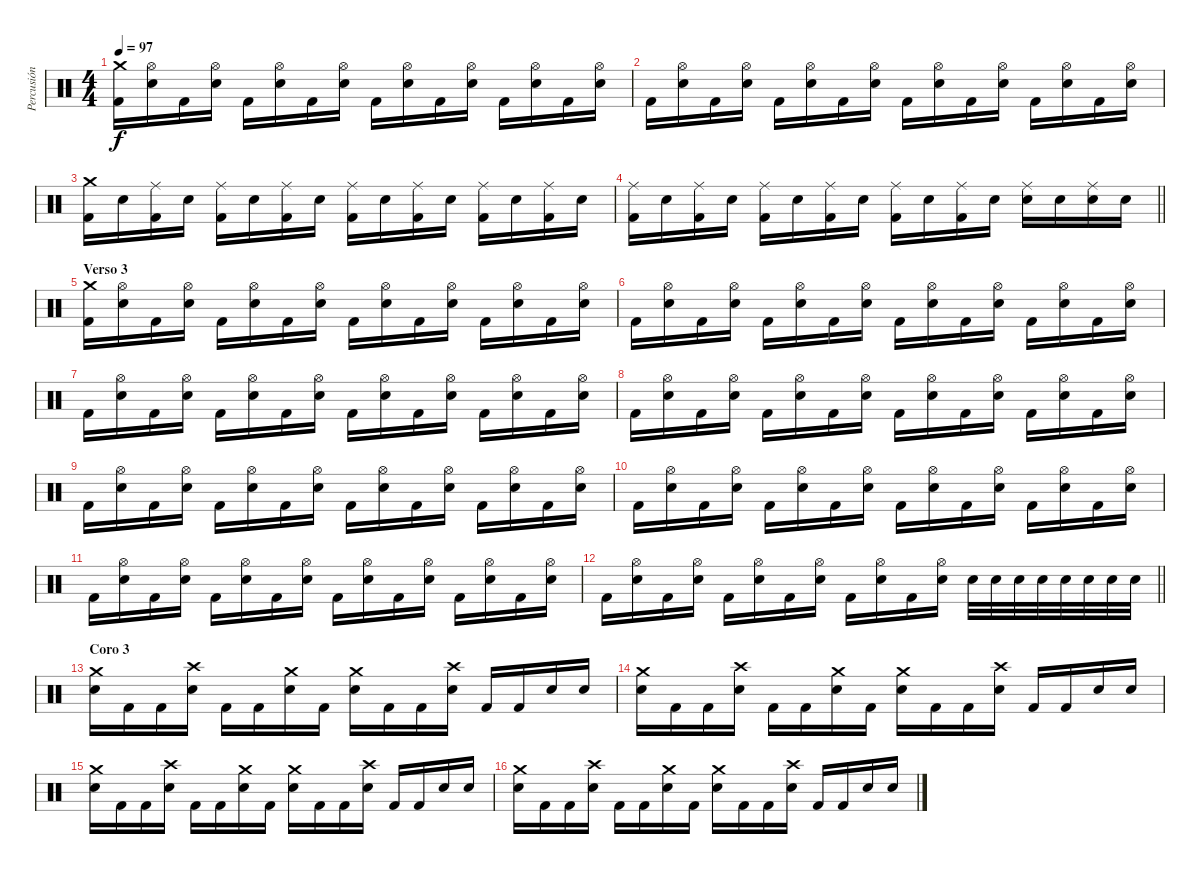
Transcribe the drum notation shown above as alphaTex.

\track ("Percusión" "Percusión") {instrument percussion}
\staff {score}
\articulation defaults
\ts (4 4)
\tempo 97
\clef neutral
\ks c
("Crash medium (hit)" "Kick (hit) 2").16{dy f} ("Hi-Hat (open)" "Snare (hit) 2").16 "Kick (hit) 2".16 ("Hi-Hat (open)" "Snare (hit) 2").16 "Kick (hit) 2".16 ("Hi-Hat (open)" "Snare (hit) 2").16 "Kick (hit) 2".16 ("Hi-Hat (open)" "Snare (hit) 2").16 "Kick (hit) 2".16 ("Hi-Hat (open)" "Snare (hit) 2").16 "Kick (hit) 2".16 ("Hi-Hat (open)" "Snare (hit) 2").16 "Kick (hit) 2".16 ("Hi-Hat (open)" "Snare (hit) 2").16 "Kick (hit) 2".16 ("Hi-Hat (open)" "Snare (hit) 2").16 |
"Kick (hit) 2".16 ("Hi-Hat (open)" "Snare (hit) 2").16 "Kick (hit) 2".16 ("Hi-Hat (open)" "Snare (hit) 2").16 "Kick (hit) 2".16 ("Hi-Hat (open)" "Snare (hit) 2").16 "Kick (hit) 2".16 ("Hi-Hat (open)" "Snare (hit) 2").16 "Kick (hit) 2".16 ("Hi-Hat (open)" "Snare (hit) 2").16 "Kick (hit) 2".16 ("Hi-Hat (open)" "Snare (hit) 2").16 "Kick (hit) 2".16 ("Hi-Hat (open)" "Snare (hit) 2").16 "Kick (hit) 2".16 ("Hi-Hat (open)" "Snare (hit) 2").16 |
("Crash medium (hit)" "Kick (hit) 2").16 "Snare (hit) 2".16 ("Ride (middle)" "Kick (hit) 2").16 "Snare (hit) 2".16 ("Ride (middle)" "Kick (hit) 2").16 "Snare (hit) 2".16 ("Ride (middle)" "Kick (hit) 2").16 "Snare (hit) 2".16 ("Ride (middle)" "Kick (hit) 2").16 "Snare (hit) 2".16 ("Ride (middle)" "Kick (hit) 2").16 "Snare (hit) 2".16 ("Ride (middle)" "Kick (hit) 2").16 "Snare (hit) 2".16 ("Ride (middle)" "Kick (hit) 2").16 "Snare (hit) 2".16 |
\barLineRight lightlight
("Ride (middle)" "Kick (hit) 2").16 "Snare (hit) 2".16 ("Ride (middle)" "Kick (hit) 2").16 "Snare (hit) 2".16 ("Ride (middle)" "Kick (hit) 2").16 "Snare (hit) 2".16 ("Ride (middle)" "Kick (hit) 2").16 "Snare (hit) 2".16 ("Ride (middle)" "Kick (hit) 2").16 "Snare (hit) 2".16 ("Ride (middle)" "Kick (hit) 2").16 "Snare (hit) 2".16 ("Ride (middle)" "Snare (hit) 2").16 "Snare (hit) 2".16 ("Ride (middle)" "Snare (hit) 2").16 "Snare (hit) 2".16 |
\section ("" "Verso 3")
("Crash medium (hit)" "Kick (hit) 2").16 ("Hi-Hat (open)" "Snare (hit) 2").16 "Kick (hit) 2".16 ("Hi-Hat (open)" "Snare (hit) 2").16 "Kick (hit) 2".16 ("Hi-Hat (open)" "Snare (hit) 2").16 "Kick (hit) 2".16 ("Hi-Hat (open)" "Snare (hit) 2").16 "Kick (hit) 2".16 ("Hi-Hat (open)" "Snare (hit) 2").16 "Kick (hit) 2".16 ("Hi-Hat (open)" "Snare (hit) 2").16 "Kick (hit) 2".16 ("Hi-Hat (open)" "Snare (hit) 2").16 "Kick (hit) 2".16 ("Hi-Hat (open)" "Snare (hit) 2").16 |
"Kick (hit) 2".16 ("Hi-Hat (open)" "Snare (hit) 2").16 "Kick (hit) 2".16 ("Hi-Hat (open)" "Snare (hit) 2").16 "Kick (hit) 2".16 ("Hi-Hat (open)" "Snare (hit) 2").16 "Kick (hit) 2".16 ("Hi-Hat (open)" "Snare (hit) 2").16 "Kick (hit) 2".16 ("Hi-Hat (open)" "Snare (hit) 2").16 "Kick (hit) 2".16 ("Hi-Hat (open)" "Snare (hit) 2").16 "Kick (hit) 2".16 ("Hi-Hat (open)" "Snare (hit) 2").16 "Kick (hit) 2".16 ("Hi-Hat (open)" "Snare (hit) 2").16 |
"Kick (hit) 2".16 ("Hi-Hat (open)" "Snare (hit) 2").16 "Kick (hit) 2".16 ("Hi-Hat (open)" "Snare (hit) 2").16 "Kick (hit) 2".16 ("Hi-Hat (open)" "Snare (hit) 2").16 "Kick (hit) 2".16 ("Hi-Hat (open)" "Snare (hit) 2").16 "Kick (hit) 2".16 ("Hi-Hat (open)" "Snare (hit) 2").16 "Kick (hit) 2".16 ("Hi-Hat (open)" "Snare (hit) 2").16 "Kick (hit) 2".16 ("Hi-Hat (open)" "Snare (hit) 2").16 "Kick (hit) 2".16 ("Hi-Hat (open)" "Snare (hit) 2").16 |
"Kick (hit) 2".16 ("Hi-Hat (open)" "Snare (hit) 2").16 "Kick (hit) 2".16 ("Hi-Hat (open)" "Snare (hit) 2").16 "Kick (hit) 2".16 ("Hi-Hat (open)" "Snare (hit) 2").16 "Kick (hit) 2".16 ("Hi-Hat (open)" "Snare (hit) 2").16 "Kick (hit) 2".16 ("Hi-Hat (open)" "Snare (hit) 2").16 "Kick (hit) 2".16 ("Hi-Hat (open)" "Snare (hit) 2").16 "Kick (hit) 2".16 ("Hi-Hat (open)" "Snare (hit) 2").16 "Kick (hit) 2".16 ("Hi-Hat (open)" "Snare (hit) 2").16 |
"Kick (hit) 2".16 ("Hi-Hat (open)" "Snare (hit) 2").16 "Kick (hit) 2".16 ("Hi-Hat (open)" "Snare (hit) 2").16 "Kick (hit) 2".16 ("Hi-Hat (open)" "Snare (hit) 2").16 "Kick (hit) 2".16 ("Hi-Hat (open)" "Snare (hit) 2").16 "Kick (hit) 2".16 ("Hi-Hat (open)" "Snare (hit) 2").16 "Kick (hit) 2".16 ("Hi-Hat (open)" "Snare (hit) 2").16 "Kick (hit) 2".16 ("Hi-Hat (open)" "Snare (hit) 2").16 "Kick (hit) 2".16 ("Hi-Hat (open)" "Snare (hit) 2").16 |
"Kick (hit) 2".16 ("Hi-Hat (open)" "Snare (hit) 2").16 "Kick (hit) 2".16 ("Hi-Hat (open)" "Snare (hit) 2").16 "Kick (hit) 2".16 ("Hi-Hat (open)" "Snare (hit) 2").16 "Kick (hit) 2".16 ("Hi-Hat (open)" "Snare (hit) 2").16 "Kick (hit) 2".16 ("Hi-Hat (open)" "Snare (hit) 2").16 "Kick (hit) 2".16 ("Hi-Hat (open)" "Snare (hit) 2").16 "Kick (hit) 2".16 ("Hi-Hat (open)" "Snare (hit) 2").16 "Kick (hit) 2".16 ("Hi-Hat (open)" "Snare (hit) 2").16 |
"Kick (hit) 2".16 ("Hi-Hat (open)" "Snare (hit) 2").16 "Kick (hit) 2".16 ("Hi-Hat (open)" "Snare (hit) 2").16 "Kick (hit) 2".16 ("Hi-Hat (open)" "Snare (hit) 2").16 "Kick (hit) 2".16 ("Hi-Hat (open)" "Snare (hit) 2").16 "Kick (hit) 2".16 ("Hi-Hat (open)" "Snare (hit) 2").16 "Kick (hit) 2".16 ("Hi-Hat (open)" "Snare (hit) 2").16 "Kick (hit) 2".16 ("Hi-Hat (open)" "Snare (hit) 2").16 "Kick (hit) 2".16 ("Hi-Hat (open)" "Snare (hit) 2").16 |
\barLineRight lightlight "Kick (hit) 2".16
("Hi-Hat (open)" "Snare (hit) 2").16 "Kick (hit) 2".16 ("Hi-Hat (open)" "Snare (hit) 2").16 "Kick (hit) 2".16 ("Hi-Hat (open)" "Snare (hit) 2").16 "Kick (hit) 2".16 ("Hi-Hat (open)" "Snare (hit) 2").16 "Kick (hit) 2".16 ("Hi-Hat (open)" "Snare (hit) 2").16 "Kick (hit) 2".16 ("Hi-Hat (open)" "Snare (hit) 2").16 "Snare (hit) 2".32 "Snare (hit) 2".32 "Snare (hit) 2".32 "Snare (hit) 2".32 "Snare (hit) 2".32 "Snare (hit) 2".32 "Snare (hit) 2".32 "Snare (hit) 2".32 |
\section ("" "Coro 3")
("Crash medium (hit)" "Electric Snare (hit)").16 "Kick (hit) 2".16 "Kick (hit) 2".16 ("Crash high (hit)" "Electric Snare (hit)").16 "Kick (hit) 2".16 "Kick (hit) 2".16 ("Crash medium (hit)" "Electric Snare (hit)").16 "Kick (hit) 2".16 ("Crash medium (hit)" "Electric Snare (hit)").16 "Kick (hit) 2".16 "Kick (hit) 2".16 ("Crash high (hit)" "Electric Snare (hit)").16 "Kick (hit) 2".16 "Kick (hit) 2".16 "Electric Snare (hit)".16 "Electric Snare (hit)".16 |
("Crash medium (hit)" "Electric Snare (hit)").16 "Kick (hit) 2".16 "Kick (hit) 2".16 ("Crash high (hit)" "Electric Snare (hit)").16 "Kick (hit) 2".16 "Kick (hit) 2".16 ("Crash medium (hit)" "Electric Snare (hit)").16 "Kick (hit) 2".16 ("Crash medium (hit)" "Electric Snare (hit)").16 "Kick (hit) 2".16 "Kick (hit) 2".16 ("Crash high (hit)" "Electric Snare (hit)").16 "Kick (hit) 2".16 "Kick (hit) 2".16 "Electric Snare (hit)".16 "Electric Snare (hit)".16 |
("Crash medium (hit)" "Electric Snare (hit)").16 "Kick (hit) 2".16 "Kick (hit) 2".16 ("Crash high (hit)" "Electric Snare (hit)").16 "Kick (hit) 2".16 "Kick (hit) 2".16 ("Crash medium (hit)" "Electric Snare (hit)").16 "Kick (hit) 2".16 ("Crash medium (hit)" "Electric Snare (hit)").16 "Kick (hit) 2".16 "Kick (hit) 2".16 ("Crash high (hit)" "Electric Snare (hit)").16 "Kick (hit) 2".16 "Kick (hit) 2".16 "Electric Snare (hit)".16 "Electric Snare (hit)".16 |
("Crash medium (hit)" "Electric Snare (hit)").16 "Kick (hit) 2".16 "Kick (hit) 2".16 ("Crash high (hit)" "Electric Snare (hit)").16 "Kick (hit) 2".16 "Kick (hit) 2".16 ("Crash medium (hit)" "Electric Snare (hit)").16 "Kick (hit) 2".16 ("Crash medium (hit)" "Electric Snare (hit)").16 "Kick (hit) 2".16 "Kick (hit) 2".16 ("Crash high (hit)" "Electric Snare (hit)").16 "Kick (hit) 2".16 "Kick (hit) 2".16 "Electric Snare (hit)".16 "Electric Snare (hit)".16
